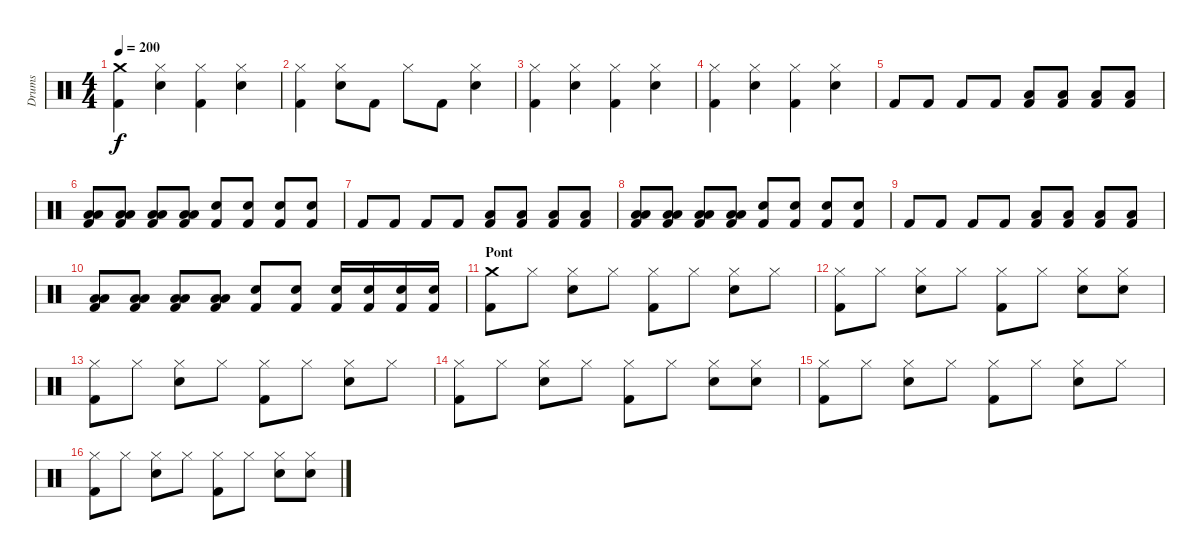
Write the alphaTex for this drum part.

\track ("Drums" "Drums") {instrument percussion}
\staff {score}
\articulation defaults
\ts (4 4)
\tempo 200
\clef neutral
\ks c
("Crash medium (hit)" "Kick (hit) 2").4{dy f} ("Hi-Hat (closed)" "Snare (hit) 2").4 ("Hi-Hat (closed)" "Kick (hit) 2").4 ("Hi-Hat (closed)" "Snare (hit) 2").4 |
("Hi-Hat (closed)" "Kick (hit) 2").4 ("Hi-Hat (closed)" "Snare (hit) 2").8 "Kick (hit) 2".8 "Hi-Hat (closed)".8 "Kick (hit) 2".8 ("Hi-Hat (closed)" "Snare (hit) 2").4 |
("Hi-Hat (closed)" "Kick (hit) 2").4 ("Hi-Hat (closed)" "Snare (hit) 2").4 ("Hi-Hat (closed)" "Kick (hit) 2").4 ("Hi-Hat (closed)" "Snare (hit) 2").4 |
("Hi-Hat (closed)" "Kick (hit) 2").4 ("Hi-Hat (closed)" "Snare (hit) 2").4 ("Hi-Hat (closed)" "Kick (hit) 2").4 ("Hi-Hat (closed)" "Snare (hit) 2").4 |
\section ("" "")
"Kick (hit) 2".8 "Kick (hit) 2".8 "Kick (hit) 2".8 "Kick (hit) 2".8 ("Low Floor Tom (hit)" "Kick (hit) 2").8 ("Low Floor Tom (hit)" "Kick (hit) 2").8 ("Low Floor Tom (hit)" "Kick (hit) 2").8 ("Low Floor Tom (hit)" "Kick (hit) 2").8 |
("Low Tom (hit)" "Low Floor Tom (hit)" "Kick (hit) 2").8 ("Low Tom (hit)" "Low Floor Tom (hit)" "Kick (hit) 2").8 ("Low Tom (hit)" "Low Floor Tom (hit)" "Kick (hit) 2").8 ("Low Tom (hit)" "Low Floor Tom (hit)" "Kick (hit) 2").8 ("Snare (hit) 2" "Kick (hit) 2").8 ("Snare (hit) 2" "Kick (hit) 2").8 ("Snare (hit) 2" "Kick (hit) 2").8 ("Snare (hit) 2" "Kick (hit) 2").8 |
"Kick (hit) 2".8 "Kick (hit) 2".8 "Kick (hit) 2".8 "Kick (hit) 2".8 ("Low Floor Tom (hit)" "Kick (hit) 2").8 ("Low Floor Tom (hit)" "Kick (hit) 2").8 ("Low Floor Tom (hit)" "Kick (hit) 2").8 ("Low Floor Tom (hit)" "Kick (hit) 2").8 |
("Low Tom (hit)" "Low Floor Tom (hit)" "Kick (hit) 2").8 ("Low Tom (hit)" "Low Floor Tom (hit)" "Kick (hit) 2").8 ("Low Tom (hit)" "Low Floor Tom (hit)" "Kick (hit) 2").8 ("Low Tom (hit)" "Low Floor Tom (hit)" "Kick (hit) 2").8 ("Snare (hit) 2" "Kick (hit) 2").8 ("Snare (hit) 2" "Kick (hit) 2").8 ("Snare (hit) 2" "Kick (hit) 2").8 ("Snare (hit) 2" "Kick (hit) 2").8 |
"Kick (hit) 2".8 "Kick (hit) 2".8 "Kick (hit) 2".8 "Kick (hit) 2".8 ("Low Floor Tom (hit)" "Kick (hit) 2").8 ("Low Floor Tom (hit)" "Kick (hit) 2").8 ("Low Floor Tom (hit)" "Kick (hit) 2").8 ("Low Floor Tom (hit)" "Kick (hit) 2").8 |
("Low Tom (hit)" "Low Floor Tom (hit)" "Kick (hit) 2").8 ("Low Tom (hit)" "Low Floor Tom (hit)" "Kick (hit) 2").8 ("Low Tom (hit)" "Low Floor Tom (hit)" "Kick (hit) 2").8 ("Low Tom (hit)" "Low Floor Tom (hit)" "Kick (hit) 2").8 ("Snare (hit) 2" "Kick (hit) 2").8 ("Snare (hit) 2" "Kick (hit) 2").8 ("Snare (hit) 2" "Kick (hit) 2").16 ("Snare (hit) 2" "Kick (hit) 2").16 ("Snare (hit) 2" "Kick (hit) 2").16 ("Snare (hit) 2" "Kick (hit) 2").16 |
\section ("" "Pont")
("Crash medium (hit)" "Kick (hit) 2").8 "Hi-Hat (closed)".8 ("Hi-Hat (closed)" "Snare (hit) 2").8 "Hi-Hat (closed)".8 ("Hi-Hat (closed)" "Kick (hit) 2").8 "Hi-Hat (closed)".8 ("Hi-Hat (closed)" "Snare (hit) 2").8 "Hi-Hat (closed)".8 |
("Hi-Hat (closed)" "Kick (hit) 2").8 "Hi-Hat (closed)".8 ("Hi-Hat (closed)" "Snare (hit) 2").8 "Hi-Hat (closed)".8 ("Hi-Hat (closed)" "Kick (hit) 2").8 "Hi-Hat (closed)".8 ("Hi-Hat (closed)" "Snare (hit) 2").8 ("Hi-Hat (closed)" "Snare (hit) 2").8 |
("Hi-Hat (closed)" "Kick (hit) 2").8 "Hi-Hat (closed)".8 ("Hi-Hat (closed)" "Snare (hit) 2").8 "Hi-Hat (closed)".8 ("Hi-Hat (closed)" "Kick (hit) 2").8 "Hi-Hat (closed)".8 ("Hi-Hat (closed)" "Snare (hit) 2").8 "Hi-Hat (closed)".8 |
("Hi-Hat (closed)" "Kick (hit) 2").8 "Hi-Hat (closed)".8 ("Hi-Hat (closed)" "Snare (hit) 2").8 "Hi-Hat (closed)".8 ("Hi-Hat (closed)" "Kick (hit) 2").8 "Hi-Hat (closed)".8 ("Hi-Hat (closed)" "Snare (hit) 2").8 ("Hi-Hat (closed)" "Snare (hit) 2").8 |
("Hi-Hat (closed)" "Kick (hit) 2").8 "Hi-Hat (closed)".8 ("Hi-Hat (closed)" "Snare (hit) 2").8 "Hi-Hat (closed)".8 ("Hi-Hat (closed)" "Kick (hit) 2").8 "Hi-Hat (closed)".8 ("Hi-Hat (closed)" "Snare (hit) 2").8 "Hi-Hat (closed)".8 |
("Hi-Hat (closed)" "Kick (hit) 2").8 "Hi-Hat (closed)".8 ("Hi-Hat (closed)" "Snare (hit) 2").8 "Hi-Hat (closed)".8 ("Hi-Hat (closed)" "Kick (hit) 2").8 "Hi-Hat (closed)".8 ("Hi-Hat (closed)" "Snare (hit) 2").8 ("Hi-Hat (closed)" "Snare (hit) 2").8
